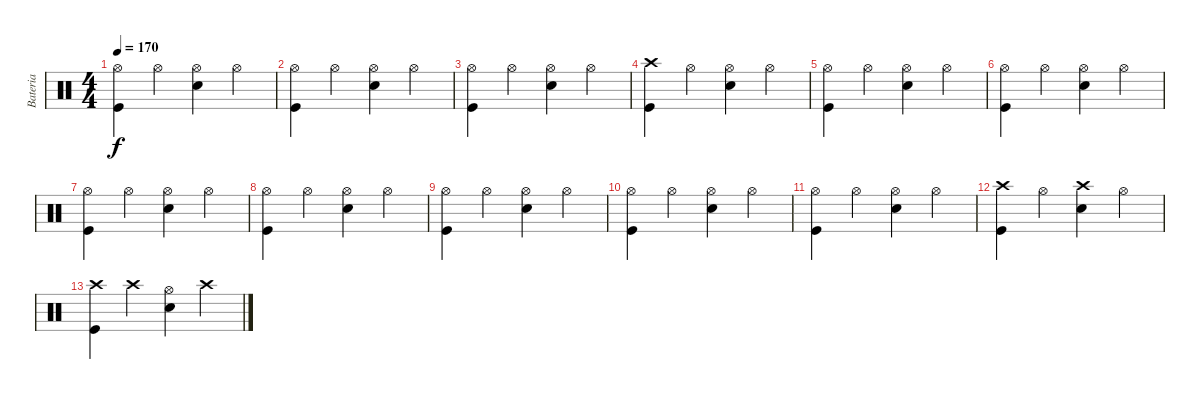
\track ("Bateria" "Bateria") {instrument percussion}
\staff {score}
\articulation defaults
\ts (4 4)
\tempo 170
\clef neutral
\ks c
("Hi-Hat (open)" "Kick (hit)").4{dy f} "Hi-Hat (open)".4 ("Hi-Hat (open)" "Snare (hit) 2").4 "Hi-Hat (open)".4 |
("Hi-Hat (open)" "Kick (hit)").4 "Hi-Hat (open)".4 ("Hi-Hat (open)" "Snare (hit) 2").4 "Hi-Hat (open)".4 |
("Hi-Hat (open)" "Kick (hit)").4 "Hi-Hat (open)".4 ("Hi-Hat (open)" "Snare (hit) 2").4 "Hi-Hat (open)".4 |
("Crash high (hit)" "Kick (hit)").4 "Hi-Hat (open)".4 ("Hi-Hat (open)" "Snare (hit) 2").4 "Hi-Hat (open)".4 |
("Hi-Hat (open)" "Kick (hit)").4 "Hi-Hat (open)".4 ("Hi-Hat (open)" "Snare (hit) 2").4 "Hi-Hat (open)".4 |
("Hi-Hat (open)" "Kick (hit)").4 "Hi-Hat (open)".4 ("Hi-Hat (open)" "Snare (hit) 2").4 "Hi-Hat (open)".4 |
("Hi-Hat (open)" "Kick (hit)").4 "Hi-Hat (open)".4 ("Hi-Hat (open)" "Snare (hit) 2").4 "Hi-Hat (open)".4 |
("Hi-Hat (open)" "Kick (hit)").4 "Hi-Hat (open)".4 ("Hi-Hat (open)" "Snare (hit) 2").4 "Hi-Hat (open)".4 |
("Hi-Hat (open)" "Kick (hit)").4 "Hi-Hat (open)".4 ("Hi-Hat (open)" "Snare (hit) 2").4 "Hi-Hat (open)".4 |
("Hi-Hat (open)" "Kick (hit)").4 "Hi-Hat (open)".4 ("Hi-Hat (open)" "Snare (hit) 2").4 "Hi-Hat (open)".4 |
("Hi-Hat (open)" "Kick (hit)").4 "Hi-Hat (open)".4 ("Hi-Hat (open)" "Snare (hit) 2").4 "Hi-Hat (open)".4 |
("Crash high (hit)" "Kick (hit)").4 "Hi-Hat (open)".4 ("Crash high (hit)" "Snare (hit) 2").4 "Hi-Hat (open)".4 |
("Crash high (hit)" "Kick (hit)").4 "Crash high (hit)".4 ("Hi-Hat (open)" "Snare (hit) 2").4 "Crash high (hit)".4
